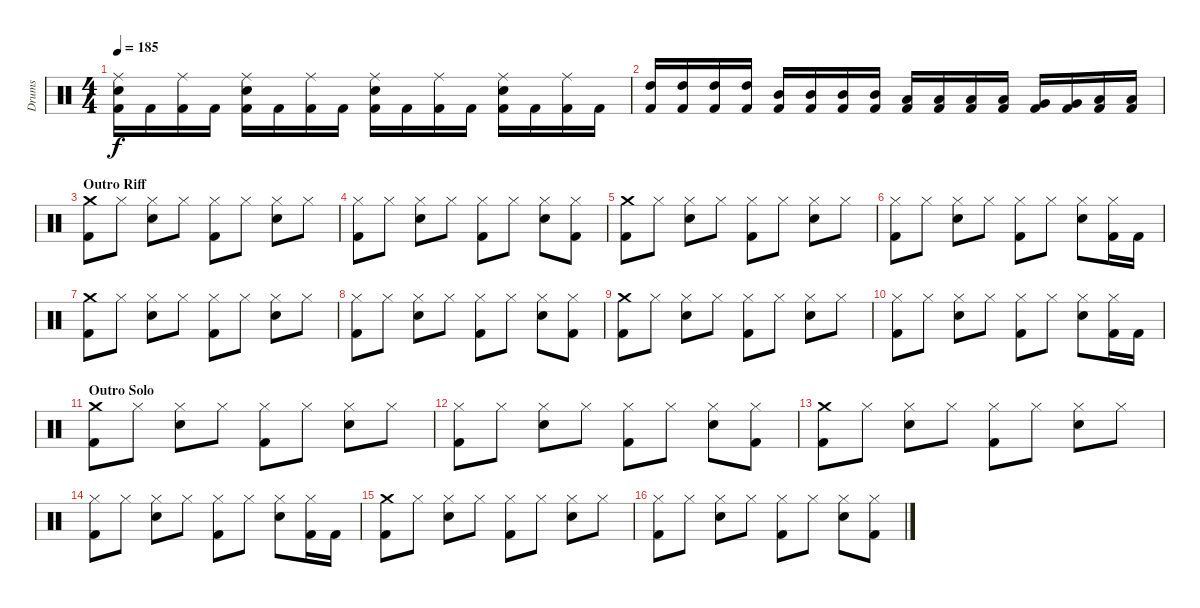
\track ("Drums" "Drums") {instrument percussion}
\staff {score}
\articulation defaults
\ts (4 4)
\tempo 185
\clef neutral
\ks c
("Ride (middle)" "Electric Snare (hit)" "Kick (hit) 2").16{dy f} "Kick (hit) 2".16 ("Ride (middle)" "Kick (hit) 2").16 "Kick (hit) 2".16 ("Ride (middle)" "Electric Snare (hit)" "Kick (hit) 2").16 "Kick (hit) 2".16 ("Ride (middle)" "Kick (hit) 2").16 "Kick (hit) 2".16 ("Ride (middle)" "Electric Snare (hit)" "Kick (hit) 2").16 "Kick (hit) 2".16 ("Ride (middle)" "Kick (hit) 2").16 "Kick (hit) 2".16 ("Ride (middle)" "Electric Snare (hit)" "Kick (hit) 2").16 "Kick (hit) 2".16 ("Ride (middle)" "Kick (hit) 2").16 "Kick (hit) 2".16 |
("High Tom (hit)" "Kick (hit) 2").16 ("High Tom (hit)" "Kick (hit) 2").16 ("High Tom (hit)" "Kick (hit) 2").16 ("High Tom (hit)" "Kick (hit) 2").16 ("Mid Tom (hit)" "Kick (hit) 2").16 ("Mid Tom (hit)" "Kick (hit) 2").16 ("Mid Tom (hit)" "Kick (hit) 2").16 ("Mid Tom (hit)" "Kick (hit) 2").16 ("Low Tom (hit)" "Kick (hit) 2").16 ("Low Tom (hit)" "Kick (hit) 2").16 ("Low Tom (hit)" "Kick (hit) 2").16 ("Low Tom (hit)" "Kick (hit) 2").16 ("Very Low Tom (hit)" "Kick (hit) 2").16 ("Very Low Tom (hit)" "Kick (hit) 2").16 ("Low Floor Tom (hit)" "Kick (hit) 2").16 ("Low Floor Tom (hit)" "Kick (hit) 2").16 |
\section ("" "Outro Riff")
("Crash medium (hit)" "Kick (hit) 2").8 "Hi-Hat (closed)".8 ("Hi-Hat (closed)" "Electric Snare (hit)").8 "Hi-Hat (closed)".8 ("Hi-Hat (closed)" "Kick (hit) 2").8 "Hi-Hat (closed)".8 ("Hi-Hat (closed)" "Electric Snare (hit)").8 "Hi-Hat (closed)".8 |
("Hi-Hat (closed)" "Kick (hit) 2").8 "Hi-Hat (closed)".8 ("Hi-Hat (closed)" "Electric Snare (hit)").8 "Hi-Hat (closed)".8 ("Hi-Hat (closed)" "Kick (hit) 2").8 "Hi-Hat (closed)".8 ("Hi-Hat (closed)" "Electric Snare (hit)").8 ("Hi-Hat (closed)" "Kick (hit) 2").8 |
("Crash medium (hit)" "Kick (hit) 2").8 "Hi-Hat (closed)".8 ("Hi-Hat (closed)" "Electric Snare (hit)").8 "Hi-Hat (closed)".8 ("Hi-Hat (closed)" "Kick (hit) 2").8 "Hi-Hat (closed)".8 ("Hi-Hat (closed)" "Electric Snare (hit)").8 "Hi-Hat (closed)".8 |
("Hi-Hat (closed)" "Kick (hit) 2").8 "Hi-Hat (closed)".8 ("Hi-Hat (closed)" "Electric Snare (hit)").8 "Hi-Hat (closed)".8 ("Hi-Hat (closed)" "Kick (hit) 2").8 "Hi-Hat (closed)".8 ("Hi-Hat (closed)" "Electric Snare (hit)").8 ("Hi-Hat (closed)" "Kick (hit) 2").16 "Kick (hit) 2".16 |
("Crash medium (hit)" "Kick (hit) 2").8 "Hi-Hat (closed)".8 ("Hi-Hat (closed)" "Electric Snare (hit)").8 "Hi-Hat (closed)".8 ("Hi-Hat (closed)" "Kick (hit) 2").8 "Hi-Hat (closed)".8 ("Hi-Hat (closed)" "Electric Snare (hit)").8 "Hi-Hat (closed)".8 |
("Hi-Hat (closed)" "Kick (hit) 2").8 "Hi-Hat (closed)".8 ("Hi-Hat (closed)" "Electric Snare (hit)").8 "Hi-Hat (closed)".8 ("Hi-Hat (closed)" "Kick (hit) 2").8 "Hi-Hat (closed)".8 ("Hi-Hat (closed)" "Electric Snare (hit)").8 ("Hi-Hat (closed)" "Kick (hit) 2").8 |
("Crash medium (hit)" "Kick (hit) 2").8 "Hi-Hat (closed)".8 ("Hi-Hat (closed)" "Electric Snare (hit)").8 "Hi-Hat (closed)".8 ("Hi-Hat (closed)" "Kick (hit) 2").8 "Hi-Hat (closed)".8 ("Hi-Hat (closed)" "Electric Snare (hit)").8 "Hi-Hat (closed)".8 |
("Hi-Hat (closed)" "Kick (hit) 2").8 "Hi-Hat (closed)".8 ("Hi-Hat (closed)" "Electric Snare (hit)").8 "Hi-Hat (closed)".8 ("Hi-Hat (closed)" "Kick (hit) 2").8 "Hi-Hat (closed)".8 ("Hi-Hat (closed)" "Electric Snare (hit)").8 ("Hi-Hat (closed)" "Kick (hit) 2").16 "Kick (hit) 2".16 |
\section ("" "Outro Solo")
("Crash medium (hit)" "Kick (hit) 2").8 "Hi-Hat (closed)".8 ("Hi-Hat (closed)" "Electric Snare (hit)").8 "Hi-Hat (closed)".8 ("Hi-Hat (closed)" "Kick (hit) 2").8 "Hi-Hat (closed)".8 ("Hi-Hat (closed)" "Electric Snare (hit)").8 "Hi-Hat (closed)".8 |
("Hi-Hat (closed)" "Kick (hit) 2").8 "Hi-Hat (closed)".8 ("Hi-Hat (closed)" "Electric Snare (hit)").8 "Hi-Hat (closed)".8 ("Hi-Hat (closed)" "Kick (hit) 2").8 "Hi-Hat (closed)".8 ("Hi-Hat (closed)" "Electric Snare (hit)").8 ("Hi-Hat (closed)" "Kick (hit) 2").8 |
("Crash medium (hit)" "Kick (hit) 2").8 "Hi-Hat (closed)".8 ("Hi-Hat (closed)" "Electric Snare (hit)").8 "Hi-Hat (closed)".8 ("Hi-Hat (closed)" "Kick (hit) 2").8 "Hi-Hat (closed)".8 ("Hi-Hat (closed)" "Electric Snare (hit)").8 "Hi-Hat (closed)".8 |
("Hi-Hat (closed)" "Kick (hit) 2").8 "Hi-Hat (closed)".8 ("Hi-Hat (closed)" "Electric Snare (hit)").8 "Hi-Hat (closed)".8 ("Hi-Hat (closed)" "Kick (hit) 2").8 "Hi-Hat (closed)".8 ("Hi-Hat (closed)" "Electric Snare (hit)").8 ("Hi-Hat (closed)" "Kick (hit) 2").16 "Kick (hit) 2".16 |
("Crash medium (hit)" "Kick (hit) 2").8{volume 5} "Hi-Hat (closed)".8 ("Hi-Hat (closed)" "Electric Snare (hit)").8 "Hi-Hat (closed)".8 ("Hi-Hat (closed)" "Kick (hit) 2").8 "Hi-Hat (closed)".8 ("Hi-Hat (closed)" "Electric Snare (hit)").8 "Hi-Hat (closed)".8 |
("Hi-Hat (closed)" "Kick (hit) 2").8 "Hi-Hat (closed)".8 ("Hi-Hat (closed)" "Electric Snare (hit)").8 "Hi-Hat (closed)".8 ("Hi-Hat (closed)" "Kick (hit) 2").8 "Hi-Hat (closed)".8 ("Hi-Hat (closed)" "Electric Snare (hit)").8 ("Hi-Hat (closed)" "Kick (hit) 2").8
